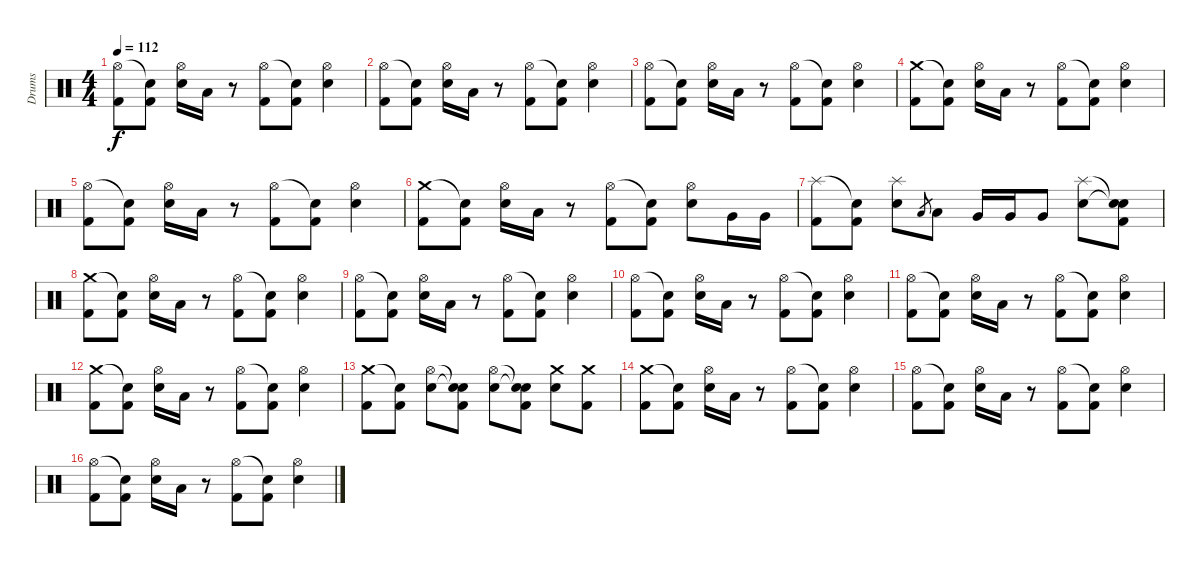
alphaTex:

\track ("Drums" "Drums") {instrument percussion}
\staff {score}
\articulation defaults
\ts (4 4)
\tempo 112
\clef neutral
\ks c
("Hi-Hat (open)" "Kick (hit) 2").8{dy f} ("Snare (hit)"{t} "Kick (hit) 2").8 ("Hi-Hat (open)" "Electric Snare (hit)").16 "Low Floor Tom (hit)".16 r.8 ("Hi-Hat (open)" "Kick (hit) 2").8 ("Snare (hit)"{t} "Kick (hit) 2").8 ("Hi-Hat (open)" "Electric Snare (hit)").4 |
("Hi-Hat (open)" "Kick (hit) 2").8 ("Snare (hit)"{t} "Kick (hit) 2").8 ("Hi-Hat (open)" "Electric Snare (hit)").16 "Low Floor Tom (hit)".16 r.8 ("Hi-Hat (open)" "Kick (hit) 2").8 ("Snare (hit)"{t} "Kick (hit) 2").8 ("Hi-Hat (open)" "Electric Snare (hit)").4 |
("Hi-Hat (open)" "Kick (hit) 2").8 ("Snare (hit)"{t} "Kick (hit) 2").8 ("Hi-Hat (open)" "Electric Snare (hit)").16 "Low Floor Tom (hit)".16 r.8 ("Hi-Hat (open)" "Kick (hit) 2").8 ("Snare (hit)"{t} "Kick (hit) 2").8 ("Hi-Hat (open)" "Electric Snare (hit)").4 |
("Crash medium (hit)" "Kick (hit) 2").8 ("Snare (hit)"{t} "Kick (hit) 2").8 ("Hi-Hat (open)" "Electric Snare (hit)").16 "Low Floor Tom (hit)".16 r.8 ("Hi-Hat (open)" "Kick (hit) 2").8 ("Snare (hit)"{t} "Kick (hit) 2").8 ("Hi-Hat (open)" "Electric Snare (hit)").4 |
("Hi-Hat (open)" "Kick (hit) 2").8 ("Snare (hit)"{t} "Kick (hit) 2").8 ("Hi-Hat (open)" "Electric Snare (hit)").16 "Low Floor Tom (hit)".16 r.8 ("Hi-Hat (open)" "Kick (hit) 2").8 ("Snare (hit)"{t} "Kick (hit) 2").8 ("Hi-Hat (open)" "Electric Snare (hit)").4 |
("Crash medium (hit)" "Kick (hit) 2").8 ("Snare (hit)"{t} "Kick (hit) 2").8 ("Hi-Hat (open)" "Electric Snare (hit)").16 "Low Floor Tom (hit)".16 r.8 ("Hi-Hat (open)" "Kick (hit) 2").8 ("Snare (hit)"{t} "Kick (hit) 2").8 ("Hi-Hat (open)" "Electric Snare (hit)").8 "Very Low Tom (hit)".16 "Very Low Tom (hit)".16 |
("Splash (hit)" "Kick (hit) 2").8 ("Snare (hit)"{t} "Kick (hit) 2").8 ("Splash (hit)" "Electric Snare (hit)").8 "Low Tom (hit)".8{gr} "Low Tom (hit)".8 "Very Low Tom (hit)".16 "Very Low Tom (hit)".16 "Very Low Tom (hit)".8 ("Splash (hit)" "Electric Snare (hit)").8 ("Snare (hit)"{t} "Snare (hit)"{t} "Kick (hit) 2").8 |
("Crash medium (hit)" "Kick (hit) 2").8 ("Snare (hit)"{t} "Kick (hit) 2").8 ("Hi-Hat (open)" "Electric Snare (hit)").16 "Low Floor Tom (hit)".16 r.8 ("Hi-Hat (open)" "Kick (hit) 2").8 ("Snare (hit)"{t} "Kick (hit) 2").8 ("Hi-Hat (open)" "Electric Snare (hit)").4 |
("Hi-Hat (open)" "Kick (hit) 2").8 ("Snare (hit)"{t} "Kick (hit) 2").8 ("Hi-Hat (open)" "Electric Snare (hit)").16 "Low Floor Tom (hit)".16 r.8 ("Hi-Hat (open)" "Kick (hit) 2").8 ("Snare (hit)"{t} "Kick (hit) 2").8 ("Hi-Hat (open)" "Electric Snare (hit)").4 |
("Hi-Hat (open)" "Kick (hit) 2").8 ("Snare (hit)"{t} "Kick (hit) 2").8 ("Hi-Hat (open)" "Electric Snare (hit)").16 "Low Floor Tom (hit)".16 r.8 ("Hi-Hat (open)" "Kick (hit) 2").8 ("Snare (hit)"{t} "Kick (hit) 2").8 ("Hi-Hat (open)" "Electric Snare (hit)").4 |
("Hi-Hat (open)" "Kick (hit) 2").8 ("Snare (hit)"{t} "Kick (hit) 2").8 ("Hi-Hat (open)" "Electric Snare (hit)").16 "Low Floor Tom (hit)".16 r.8 ("Hi-Hat (open)" "Kick (hit) 2").8 ("Snare (hit)"{t} "Kick (hit) 2").8 ("Hi-Hat (open)" "Electric Snare (hit)").4 |
("Crash medium (hit)" "Kick (hit) 2").8 ("Snare (hit)"{t} "Kick (hit) 2").8 ("Hi-Hat (open)" "Electric Snare (hit)").16 "Low Floor Tom (hit)".16 r.8 ("Hi-Hat (open)" "Kick (hit) 2").8 ("Snare (hit)"{t} "Kick (hit) 2").8 ("Hi-Hat (open)" "Electric Snare (hit)").4 |
("Crash medium (hit)" "Kick (hit) 2").8 ("Snare (hit)"{t} "Kick (hit) 2").8 ("Hi-Hat (open)" "Electric Snare (hit)").8 ("Snare (hit)"{t} "Snare (hit)"{t} "Kick (hit) 2").8 ("Hi-Hat (open)" "Electric Snare (hit)").8 ("Snare (hit)"{t} "Snare (hit)"{t} "Kick (hit) 2").8 ("Crash medium (hit)" "Electric Snare (hit)").8 ("Crash medium (hit)" "Kick (hit) 2").8 |
("Crash medium (hit)" "Kick (hit) 2").8 ("Snare (hit)"{t} "Kick (hit) 2").8 ("Hi-Hat (open)" "Electric Snare (hit)").16 "Low Floor Tom (hit)".16 r.8 ("Hi-Hat (open)" "Kick (hit) 2").8 ("Snare (hit)"{t} "Kick (hit) 2").8 ("Hi-Hat (open)" "Electric Snare (hit)").4 |
("Hi-Hat (open)" "Kick (hit) 2").8 ("Snare (hit)"{t} "Kick (hit) 2").8 ("Hi-Hat (open)" "Electric Snare (hit)").16 "Low Floor Tom (hit)".16 r.8 ("Hi-Hat (open)" "Kick (hit) 2").8 ("Snare (hit)"{t} "Kick (hit) 2").8 ("Hi-Hat (open)" "Electric Snare (hit)").4 |
("Hi-Hat (open)" "Kick (hit) 2").8 ("Snare (hit)"{t} "Kick (hit) 2").8 ("Hi-Hat (open)" "Electric Snare (hit)").16 "Low Floor Tom (hit)".16 r.8 ("Hi-Hat (open)" "Kick (hit) 2").8 ("Snare (hit)"{t} "Kick (hit) 2").8 ("Hi-Hat (open)" "Electric Snare (hit)").4
